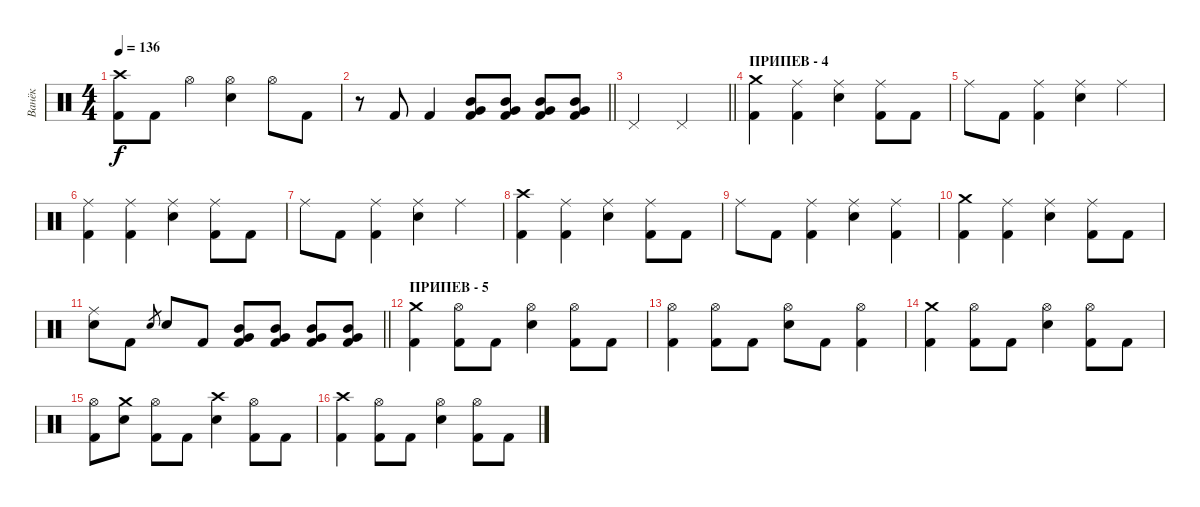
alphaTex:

\track ("Ванёк" "Ванёк") {instrument percussion}
\staff {score}
\articulation defaults
\ts (4 4)
\tempo 136
\clef neutral
\ks c
("Crash high (hit)" "Kick (hit) 2").8{dy f} "Kick (hit) 2".8 "Hi-Hat (open)".4 ("Hi-Hat (open)" "Snare (hit) 2").4 "Hi-Hat (open)".8 "Kick (hit) 2".8 |
\barLineRight lightlight
r.8 "Kick (hit) 2".8 "Kick (hit) 2".4 ("Very Low Tom (hit)" "Mid Tom (hit)" "Kick (hit) 2").8 ("Very Low Tom (hit)" "Mid Tom (hit)" "Kick (hit) 2").8 ("Very Low Tom (hit)" "Mid Tom (hit)" "Kick (hit) 2").8 ("Very Low Tom (hit)" "Mid Tom (hit)" "Kick (hit) 2").8 |
\barLineRight lightlight "Pedal Hi-Hat (hit)".2 "Pedal Hi-Hat (hit)".2
|
\section ("" "ПРИПЕВ - 4")
("Crash medium (hit)" "Kick (hit) 2").4 ("Ride (middle)" "Kick (hit) 2").4 ("Ride (middle)" "Snare (hit) 2").4 ("Ride (middle)" "Kick (hit) 2").8 "Kick (hit) 2".8 |
"Ride (middle)".8 "Kick (hit) 2".8 ("Ride (middle)" "Kick (hit) 2").4 ("Ride (middle)" "Snare (hit) 2").4 "Ride (middle)".4 |
("Ride (middle)" "Kick (hit) 2").4 ("Ride (middle)" "Kick (hit) 2").4 ("Ride (middle)" "Snare (hit) 2").4 ("Ride (middle)" "Kick (hit) 2").8 "Kick (hit) 2".8 |
"Ride (middle)".8 "Kick (hit) 2".8 ("Ride (middle)" "Kick (hit) 2").4 ("Ride (middle)" "Snare (hit) 2").4 "Ride (middle)".4 |
("Crash high (hit)" "Kick (hit) 2").4 ("Ride (middle)" "Kick (hit) 2").4 ("Ride (middle)" "Snare (hit) 2").4 ("Ride (middle)" "Kick (hit) 2").8 "Kick (hit) 2".8 |
"Ride (middle)".8 "Kick (hit) 2".8 ("Ride (middle)" "Kick (hit) 2").4 ("Ride (middle)" "Snare (hit) 2").4 ("Ride (middle)" "Kick (hit) 2").4 |
("Crash medium (hit)" "Kick (hit) 2").4 ("Ride (middle)" "Kick (hit) 2").4 ("Ride (middle)" "Snare (hit) 2").4 ("Ride (middle)" "Kick (hit) 2").8 "Kick (hit) 2".8 |
\barLineRight lightlight
("Ride (middle)" "Snare (hit) 2").8 "Kick (hit) 2".8 "Snare (hit) 2".8{gr} "Snare (hit) 2".8 "Kick (hit) 2".8 ("Very Low Tom (hit)" "Mid Tom (hit)" "Kick (hit) 2").8 ("Very Low Tom (hit)" "Mid Tom (hit)" "Kick (hit) 2").8 ("Very Low Tom (hit)" "Mid Tom (hit)" "Kick (hit) 2").8 ("Very Low Tom (hit)" "Mid Tom (hit)" "Kick (hit) 2").8 |
\section ("" "ПРИПЕВ - 5")
("Crash medium (hit)" "Kick (hit) 2").4 ("Hi-Hat (open)" "Kick (hit) 2").8 "Kick (hit) 2".8 ("Hi-Hat (open)" "Snare (hit) 2").4 ("Hi-Hat (open)" "Kick (hit) 2").8 "Kick (hit) 2".8 |
("Hi-Hat (open)" "Kick (hit) 2").4 ("Hi-Hat (open)" "Kick (hit) 2").8 "Kick (hit) 2".8 ("Hi-Hat (open)" "Snare (hit) 2").8 "Kick (hit) 2".8 ("Hi-Hat (open)" "Kick (hit) 2").4 |
("Crash medium (hit)" "Kick (hit) 2").4 ("Hi-Hat (open)" "Kick (hit) 2").8 "Kick (hit) 2".8 ("Hi-Hat (open)" "Snare (hit) 2").4 ("Hi-Hat (open)" "Kick (hit) 2").8 "Kick (hit) 2".8 |
("Hi-Hat (open)" "Kick (hit) 2").8 ("Crash medium (hit)" "Snare (hit) 2").8 ("Hi-Hat (open)" "Kick (hit) 2").8 "Kick (hit) 2".8 ("Crash high (hit)" "Snare (hit) 2").4 ("Hi-Hat (open)" "Kick (hit) 2").8 "Kick (hit) 2".8 |
("Crash high (hit)" "Kick (hit) 2").4 ("Hi-Hat (open)" "Kick (hit) 2").8 "Kick (hit) 2".8 ("Hi-Hat (open)" "Snare (hit) 2").4 ("Hi-Hat (open)" "Kick (hit) 2").8 "Kick (hit) 2".8
